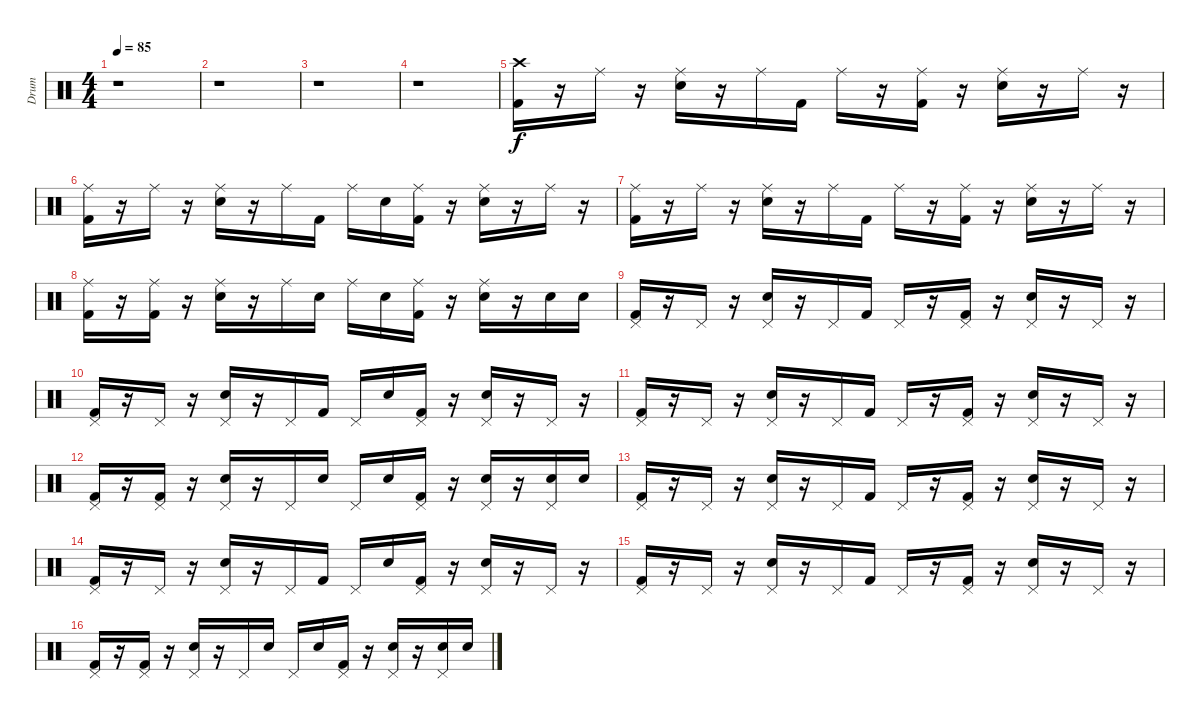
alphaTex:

\track ("Drum" "Drum") {instrument percussion}
\staff {score}
\articulation defaults
\ts (4 4)
\tempo 85
\clef neutral
\ks c
r.1{dy f} |
r.1 |
r.1 |
r.1 |
("Crash high (hit)" "Kick (hit) 2").16 r.16 "Ride (middle)".16 r.16 ("Ride (middle)" "Electric Snare (hit)").16 r.16 "Ride (middle)".16 "Kick (hit) 2".16 "Ride (middle)".16 r.16 ("Ride (middle)" "Kick (hit) 2").16 r.16 ("Ride (middle)" "Electric Snare (hit)").16 r.16 "Ride (middle)".16 r.16 |
("Ride (middle)" "Kick (hit) 2").16 r.16 "Ride (middle)".16 r.16 ("Ride (middle)" "Electric Snare (hit)").16 r.16 "Ride (middle)".16 "Kick (hit) 2".16 "Ride (middle)".16 "Electric Snare (hit)".16 ("Ride (middle)" "Kick (hit) 2").16 r.16 ("Ride (middle)" "Electric Snare (hit)").16 r.16 "Ride (middle)".16 r.16 |
("Ride (middle)" "Kick (hit) 2").16 r.16 "Ride (middle)".16 r.16 ("Ride (middle)" "Electric Snare (hit)").16 r.16 "Ride (middle)".16 "Kick (hit) 2".16 "Ride (middle)".16 r.16 ("Ride (middle)" "Kick (hit) 2").16 r.16 ("Ride (middle)" "Electric Snare (hit)").16 r.16 "Ride (middle)".16 r.16 |
("Ride (middle)" "Kick (hit) 2").16 r.16 ("Ride (middle)" "Kick (hit) 2").16 r.16 ("Ride (middle)" "Electric Snare (hit)").16 r.16 "Ride (middle)".16 "Electric Snare (hit)".16 "Ride (middle)".16 "Electric Snare (hit)".16 ("Ride (middle)" "Kick (hit) 2").16 r.16 ("Ride (middle)" "Electric Snare (hit)").16 r.16 "Electric Snare (hit)".16 "Electric Snare (hit)".16 |
("Pedal Hi-Hat (hit)" "Kick (hit) 2").16 r.16 "Pedal Hi-Hat (hit)".16 r.16 ("Pedal Hi-Hat (hit)" "Electric Snare (hit)").16 r.16 "Pedal Hi-Hat (hit)".16 "Kick (hit) 2".16 "Pedal Hi-Hat (hit)".16 r.16 ("Pedal Hi-Hat (hit)" "Kick (hit) 2").16 r.16 ("Pedal Hi-Hat (hit)" "Electric Snare (hit)").16 r.16 "Pedal Hi-Hat (hit)".16 r.16 |
("Pedal Hi-Hat (hit)" "Kick (hit) 2").16 r.16 "Pedal Hi-Hat (hit)".16 r.16 ("Pedal Hi-Hat (hit)" "Electric Snare (hit)").16 r.16 "Pedal Hi-Hat (hit)".16 "Kick (hit) 2".16 "Pedal Hi-Hat (hit)".16 "Electric Snare (hit)".16 ("Pedal Hi-Hat (hit)" "Kick (hit) 2").16 r.16 ("Pedal Hi-Hat (hit)" "Electric Snare (hit)").16 r.16 "Pedal Hi-Hat (hit)".16 r.16 |
("Pedal Hi-Hat (hit)" "Kick (hit) 2").16 r.16 "Pedal Hi-Hat (hit)".16 r.16 ("Pedal Hi-Hat (hit)" "Electric Snare (hit)").16 r.16 "Pedal Hi-Hat (hit)".16 "Kick (hit) 2".16 "Pedal Hi-Hat (hit)".16 r.16 ("Pedal Hi-Hat (hit)" "Kick (hit) 2").16 r.16 ("Pedal Hi-Hat (hit)" "Electric Snare (hit)").16 r.16 "Pedal Hi-Hat (hit)".16 r.16 |
("Pedal Hi-Hat (hit)" "Kick (hit) 2").16 r.16 ("Pedal Hi-Hat (hit)" "Kick (hit) 2").16 r.16 ("Pedal Hi-Hat (hit)" "Electric Snare (hit)").16 r.16 "Pedal Hi-Hat (hit)".16 "Electric Snare (hit)".16 "Pedal Hi-Hat (hit)".16 "Electric Snare (hit)".16 ("Pedal Hi-Hat (hit)" "Kick (hit) 2").16 r.16 ("Pedal Hi-Hat (hit)" "Electric Snare (hit)").16 r.16 ("Pedal Hi-Hat (hit)" "Electric Snare (hit)").16 "Electric Snare (hit)".16 |
("Pedal Hi-Hat (hit)" "Kick (hit) 2").16 r.16 "Pedal Hi-Hat (hit)".16 r.16 ("Pedal Hi-Hat (hit)" "Electric Snare (hit)").16 r.16 "Pedal Hi-Hat (hit)".16 "Kick (hit) 2".16 "Pedal Hi-Hat (hit)".16 r.16 ("Pedal Hi-Hat (hit)" "Kick (hit) 2").16 r.16 ("Pedal Hi-Hat (hit)" "Electric Snare (hit)").16 r.16 "Pedal Hi-Hat (hit)".16 r.16 |
("Pedal Hi-Hat (hit)" "Kick (hit) 2").16 r.16 "Pedal Hi-Hat (hit)".16 r.16 ("Pedal Hi-Hat (hit)" "Electric Snare (hit)").16 r.16 "Pedal Hi-Hat (hit)".16 "Kick (hit) 2".16 "Pedal Hi-Hat (hit)".16 "Electric Snare (hit)".16 ("Pedal Hi-Hat (hit)" "Kick (hit) 2").16 r.16 ("Pedal Hi-Hat (hit)" "Electric Snare (hit)").16 r.16 "Pedal Hi-Hat (hit)".16 r.16 |
("Pedal Hi-Hat (hit)" "Kick (hit) 2").16 r.16 "Pedal Hi-Hat (hit)".16 r.16 ("Pedal Hi-Hat (hit)" "Electric Snare (hit)").16 r.16 "Pedal Hi-Hat (hit)".16 "Kick (hit) 2".16 "Pedal Hi-Hat (hit)".16 r.16 ("Pedal Hi-Hat (hit)" "Kick (hit) 2").16 r.16 ("Pedal Hi-Hat (hit)" "Electric Snare (hit)").16 r.16 "Pedal Hi-Hat (hit)".16 r.16 |
("Pedal Hi-Hat (hit)" "Kick (hit) 2").16 r.16 ("Pedal Hi-Hat (hit)" "Kick (hit) 2").16 r.16 ("Pedal Hi-Hat (hit)" "Electric Snare (hit)").16 r.16 "Pedal Hi-Hat (hit)".16 "Electric Snare (hit)".16 "Pedal Hi-Hat (hit)".16 "Electric Snare (hit)".16 ("Pedal Hi-Hat (hit)" "Kick (hit) 2").16 r.16 ("Pedal Hi-Hat (hit)" "Electric Snare (hit)").16 r.16 ("Pedal Hi-Hat (hit)" "Electric Snare (hit)").16 "Electric Snare (hit)".16
